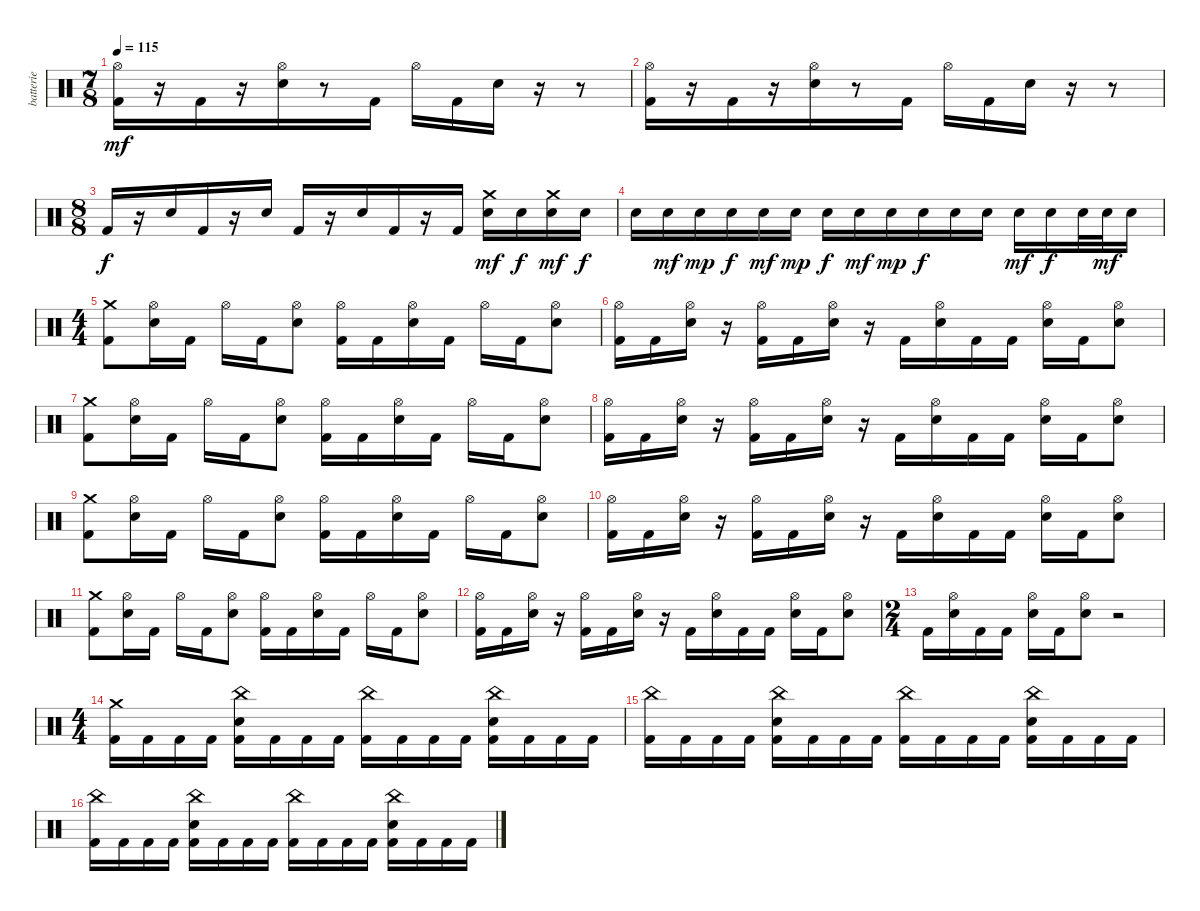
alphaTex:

\track ("batterie" "batterie") {instrument percussion}
\staff {score}
\articulation defaults
\ts (7 8)
\tempo 115
\clef neutral
\ks c
("Hi-Hat (open)" "Kick (hit) 2").16{dy mf} r.16 "Kick (hit) 2".16 r.16 ("Hi-Hat (open)" "Electric Snare (hit)").16 r.8 "Kick (hit) 2".16 "Hi-Hat (open)".16 "Kick (hit) 2".16 "Electric Snare (hit)".16 r.16 r.8 |
("Hi-Hat (open)" "Kick (hit) 2").16 r.16 "Kick (hit) 2".16 r.16 ("Hi-Hat (open)" "Electric Snare (hit)").16 r.8 "Kick (hit) 2".16 "Hi-Hat (open)".16 "Kick (hit) 2".16 "Electric Snare (hit)".16 r.16 r.8 |
\ts (8 8)
"Kick (hit) 2".16{dy f} r.16 "Electric Snare (hit)".16 "Kick (hit) 2".16 r.16 "Electric Snare (hit)".16 "Kick (hit) 2".16 r.16 "Electric Snare (hit)".16 "Kick (hit) 2".16 r.16 "Kick (hit) 2".16 ("Crash medium (hit)" "Electric Snare (hit)").16{dy mf} "Electric Snare (hit)".16{dy f} ("Crash medium (hit)" "Electric Snare (hit)").16{dy mf} "Electric Snare (hit)".16{dy f} |
"Electric Snare (hit)".16 "Electric Snare (hit)".16{dy mf} "Electric Snare (hit)".16{dy mp} "Electric Snare (hit)".16{dy f} "Electric Snare (hit)".16{dy mf} "Electric Snare (hit)".16{dy mp} "Electric Snare (hit)".16{dy f} "Electric Snare (hit)".16{dy mf} "Electric Snare (hit)".16{dy mp} "Electric Snare (hit)".16{dy f} "Electric Snare (hit)".16 "Electric Snare (hit)".16 "Electric Snare (hit)".16{dy mf} "Electric Snare (hit)".16{dy f} "Electric Snare (hit)".32 "Electric Snare (hit)".32{dy mf} "Electric Snare (hit)".16 |
\ts (4 4)
("Crash medium (hit)" "Kick (hit) 2").8 ("Hi-Hat (open)" "Electric Snare (hit)").16 "Kick (hit) 2".16 "Hi-Hat (open)".16 "Kick (hit) 2".16 ("Hi-Hat (open)" "Electric Snare (hit)").8 ("Hi-Hat (open)" "Kick (hit) 2").16 "Kick (hit) 2".16 ("Hi-Hat (open)" "Electric Snare (hit)").16 "Kick (hit) 2".16 "Hi-Hat (open)".16 "Kick (hit) 2".16 ("Hi-Hat (open)" "Electric Snare (hit)").8 |
("Hi-Hat (open)" "Kick (hit) 2").16 "Kick (hit) 2".16 ("Hi-Hat (open)" "Electric Snare (hit)").16 r.16 ("Hi-Hat (open)" "Kick (hit) 2").16 "Kick (hit) 2".16 ("Hi-Hat (open)" "Electric Snare (hit)").16 r.16 "Kick (hit) 2".16 ("Hi-Hat (open)" "Electric Snare (hit)").16 "Kick (hit) 2".16 "Kick (hit) 2".16 ("Hi-Hat (open)" "Electric Snare (hit)").16 "Kick (hit) 2".16 ("Hi-Hat (open)" "Electric Snare (hit)").8 |
("Crash medium (hit)" "Kick (hit) 2").8 ("Hi-Hat (open)" "Electric Snare (hit)").16 "Kick (hit) 2".16 "Hi-Hat (open)".16 "Kick (hit) 2".16 ("Hi-Hat (open)" "Electric Snare (hit)").8 ("Hi-Hat (open)" "Kick (hit) 2").16 "Kick (hit) 2".16 ("Hi-Hat (open)" "Electric Snare (hit)").16 "Kick (hit) 2".16 "Hi-Hat (open)".16 "Kick (hit) 2".16 ("Hi-Hat (open)" "Electric Snare (hit)").8 |
("Hi-Hat (open)" "Kick (hit) 2").16 "Kick (hit) 2".16 ("Hi-Hat (open)" "Electric Snare (hit)").16 r.16 ("Hi-Hat (open)" "Kick (hit) 2").16 "Kick (hit) 2".16 ("Hi-Hat (open)" "Electric Snare (hit)").16 r.16 "Kick (hit) 2".16 ("Hi-Hat (open)" "Electric Snare (hit)").16 "Kick (hit) 2".16 "Kick (hit) 2".16 ("Hi-Hat (open)" "Electric Snare (hit)").16 "Kick (hit) 2".16 ("Hi-Hat (open)" "Electric Snare (hit)").8 |
("Crash medium (hit)" "Kick (hit) 2").8 ("Hi-Hat (open)" "Electric Snare (hit)").16 "Kick (hit) 2".16 "Hi-Hat (open)".16 "Kick (hit) 2".16 ("Hi-Hat (open)" "Electric Snare (hit)").8 ("Hi-Hat (open)" "Kick (hit) 2").16 "Kick (hit) 2".16 ("Hi-Hat (open)" "Electric Snare (hit)").16 "Kick (hit) 2".16 "Hi-Hat (open)".16 "Kick (hit) 2".16 ("Hi-Hat (open)" "Electric Snare (hit)").8 |
("Hi-Hat (open)" "Kick (hit) 2").16 "Kick (hit) 2".16 ("Hi-Hat (open)" "Electric Snare (hit)").16 r.16 ("Hi-Hat (open)" "Kick (hit) 2").16 "Kick (hit) 2".16 ("Hi-Hat (open)" "Electric Snare (hit)").16 r.16 "Kick (hit) 2".16 ("Hi-Hat (open)" "Electric Snare (hit)").16 "Kick (hit) 2".16 "Kick (hit) 2".16 ("Hi-Hat (open)" "Electric Snare (hit)").16 "Kick (hit) 2".16 ("Hi-Hat (open)" "Electric Snare (hit)").8 |
("Crash medium (hit)" "Kick (hit) 2").8 ("Hi-Hat (open)" "Electric Snare (hit)").16 "Kick (hit) 2".16 "Hi-Hat (open)".16 "Kick (hit) 2".16 ("Hi-Hat (open)" "Electric Snare (hit)").8 ("Hi-Hat (open)" "Kick (hit) 2").16 "Kick (hit) 2".16 ("Hi-Hat (open)" "Electric Snare (hit)").16 "Kick (hit) 2".16 "Hi-Hat (open)".16 "Kick (hit) 2".16 ("Hi-Hat (open)" "Electric Snare (hit)").8 |
("Hi-Hat (open)" "Kick (hit) 2").16 "Kick (hit) 2".16 ("Hi-Hat (open)" "Electric Snare (hit)").16 r.16 ("Hi-Hat (open)" "Kick (hit) 2").16 "Kick (hit) 2".16 ("Hi-Hat (open)" "Electric Snare (hit)").16 r.16 "Kick (hit) 2".16 ("Hi-Hat (open)" "Electric Snare (hit)").16 "Kick (hit) 2".16 "Kick (hit) 2".16 ("Hi-Hat (open)" "Electric Snare (hit)").16 "Kick (hit) 2".16 ("Hi-Hat (open)" "Electric Snare (hit)").8 |
\ts (2 4)
"Kick (hit) 2".16 ("Hi-Hat (open)" "Electric Snare (hit)").16 "Kick (hit) 2".16 "Kick (hit) 2".16 ("Hi-Hat (open)" "Electric Snare (hit)").16 "Kick (hit) 2".16 ("Hi-Hat (open)" "Electric Snare (hit)").8 r.2 |
\ts (4 4)
("Crash medium (hit)" "Kick (hit) 2").16 "Kick (hit) 2".16 "Kick (hit) 2".16 "Kick (hit) 2".16 ("China (hit)" "Electric Snare (hit)" "Kick (hit) 2").16 "Kick (hit) 2".16 "Kick (hit) 2".16 "Kick (hit) 2".16 ("China (hit)" "Kick (hit) 2").16 "Kick (hit) 2".16 "Kick (hit) 2".16 "Kick (hit) 2".16 ("China (hit)" "Electric Snare (hit)" "Kick (hit) 2").16 "Kick (hit) 2".16 "Kick (hit) 2".16 "Kick (hit) 2".16 |
("China (hit)" "Kick (hit) 2").16 "Kick (hit) 2".16 "Kick (hit) 2".16 "Kick (hit) 2".16 ("China (hit)" "Electric Snare (hit)" "Kick (hit) 2").16 "Kick (hit) 2".16 "Kick (hit) 2".16 "Kick (hit) 2".16 ("China (hit)" "Kick (hit) 2").16 "Kick (hit) 2".16 "Kick (hit) 2".16 "Kick (hit) 2".16 ("China (hit)" "Electric Snare (hit)" "Kick (hit) 2").16 "Kick (hit) 2".16 "Kick (hit) 2".16 "Kick (hit) 2".16 |
("China (hit)" "Kick (hit) 2").16 "Kick (hit) 2".16 "Kick (hit) 2".16 "Kick (hit) 2".16 ("China (hit)" "Electric Snare (hit)" "Kick (hit) 2").16 "Kick (hit) 2".16 "Kick (hit) 2".16 "Kick (hit) 2".16 ("China (hit)" "Kick (hit) 2").16 "Kick (hit) 2".16 "Kick (hit) 2".16 "Kick (hit) 2".16 ("China (hit)" "Electric Snare (hit)" "Kick (hit) 2").16 "Kick (hit) 2".16 "Kick (hit) 2".16 "Kick (hit) 2".16
